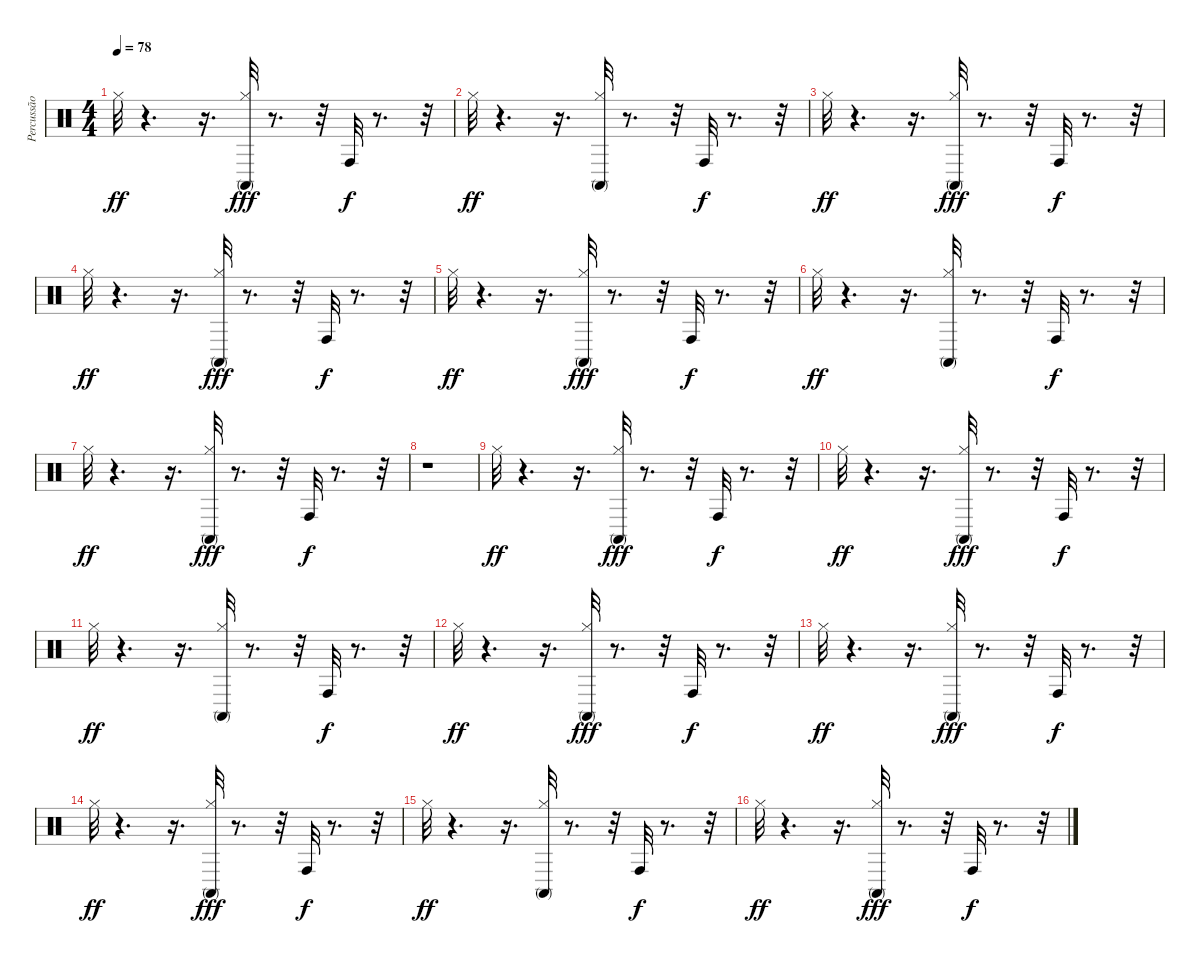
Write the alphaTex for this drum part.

\track ("Percussão" "Percussão") {instrument percussion}
\staff {score}
\articulation defaults
\ts (4 4)
\tempo 78
\clef neutral
\ks c "Hi-Hat (closed)".32{dy ff}
r.4{d} r.16{d} ("Hi-Hat (closed)" "Conga high (mute)").32{dy fff} r.8{d} r.32 "Conga high (hit)".32{dy f} r.8{d} r.32 |
"Hi-Hat (closed)".32{dy ff} r.4{d} r.16{d} ("Conga high (mute)" "Hi-Hat (closed)").32 r.8{d} r.32 "Conga high (hit)".32{dy f} r.8{d} r.32 |
"Hi-Hat (closed)".32{dy ff} r.4{d} r.16{d} ("Hi-Hat (closed)" "Conga high (mute)").32{dy fff} r.8{d} r.32 "Conga high (hit)".32{dy f} r.8{d} r.32 |
"Hi-Hat (closed)".32{dy ff} r.4{d} r.16{d} ("Hi-Hat (closed)" "Conga high (mute)").32{dy fff} r.8{d} r.32 "Conga high (hit)".32{dy f} r.8{d} r.32 |
"Hi-Hat (closed)".32{dy ff} r.4{d} r.16{d} ("Hi-Hat (closed)" "Conga high (mute)").32{dy fff} r.8{d} r.32 "Conga high (hit)".32{dy f} r.8{d} r.32 |
"Hi-Hat (closed)".32{dy ff} r.4{d} r.16{d} ("Conga high (mute)" "Hi-Hat (closed)").32 r.8{d} r.32 "Conga high (hit)".32{dy f} r.8{d} r.32 |
"Hi-Hat (closed)".32{dy ff} r.4{d} r.16{d} ("Hi-Hat (closed)" "Conga high (mute)").32{dy fff} r.8{d} r.32 "Conga high (hit)".32{dy f} r.8{d} r.32 |
r.1 |
"Hi-Hat (closed)".32{dy ff} r.4{d} r.16{d} ("Hi-Hat (closed)" "Conga high (mute)").32{dy fff} r.8{d} r.32 "Conga high (hit)".32{dy f} r.8{d} r.32 |
"Hi-Hat (closed)".32{dy ff} r.4{d} r.16{d} ("Hi-Hat (closed)" "Conga high (mute)").32{dy fff} r.8{d} r.32 "Conga high (hit)".32{dy f} r.8{d} r.32 |
"Hi-Hat (closed)".32{dy ff} r.4{d} r.16{d} ("Conga high (mute)" "Hi-Hat (closed)").32 r.8{d} r.32 "Conga high (hit)".32{dy f} r.8{d} r.32 |
"Hi-Hat (closed)".32{dy ff} r.4{d} r.16{d} ("Hi-Hat (closed)" "Conga high (mute)").32{dy fff} r.8{d} r.32 "Conga high (hit)".32{dy f} r.8{d} r.32 |
"Hi-Hat (closed)".32{dy ff} r.4{d} r.16{d} ("Hi-Hat (closed)" "Conga high (mute)").32{dy fff} r.8{d} r.32 "Conga high (hit)".32{dy f} r.8{d} r.32 |
"Hi-Hat (closed)".32{dy ff} r.4{d} r.16{d} ("Hi-Hat (closed)" "Conga high (mute)").32{dy fff} r.8{d} r.32 "Conga high (hit)".32{dy f} r.8{d} r.32 |
"Hi-Hat (closed)".32{dy ff} r.4{d} r.16{d} ("Conga high (mute)" "Hi-Hat (closed)").32 r.8{d} r.32 "Conga high (hit)".32{dy f} r.8{d} r.32 |
"Hi-Hat (closed)".32{dy ff} r.4{d} r.16{d} ("Hi-Hat (closed)" "Conga high (mute)").32{dy fff} r.8{d} r.32 "Conga high (hit)".32{dy f} r.8{d} r.32
